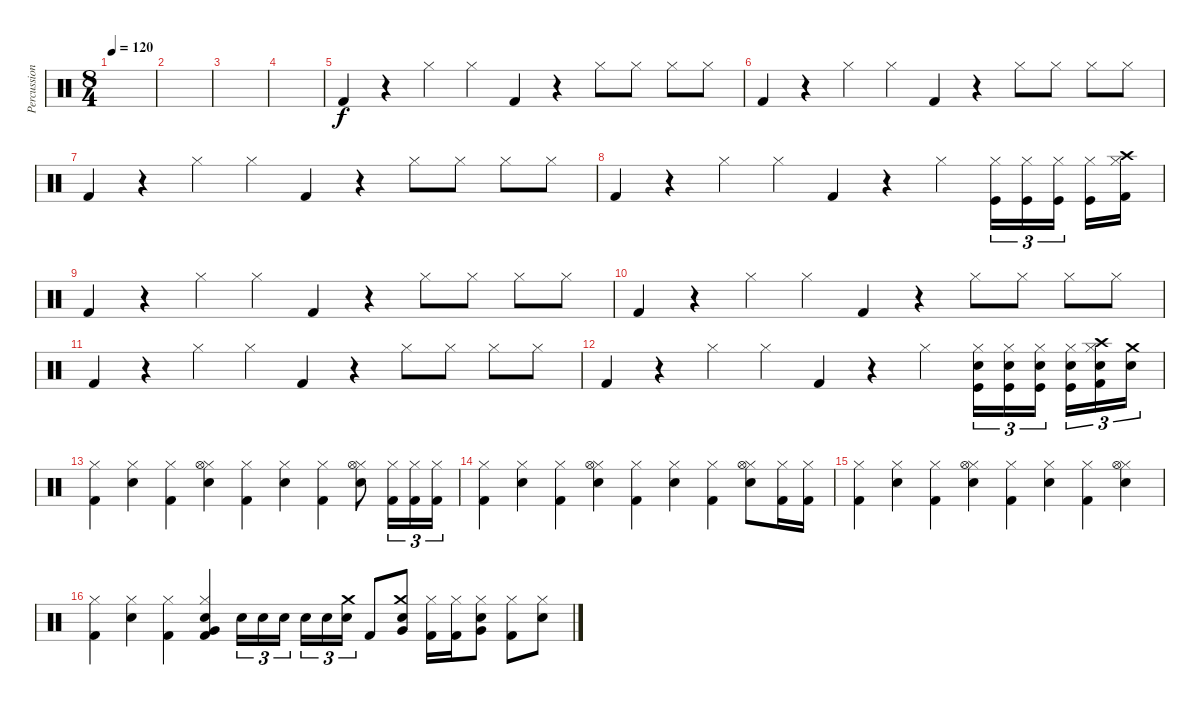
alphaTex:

\track ("Percussions" "Percussion") {instrument percussion}
\staff {score}
\articulation defaults
\ts (8 4)
\tempo 120
\clef neutral
\ks c
|
|
|
|
"Kick (hit) 2".4 r.4 "Hi-Hat (closed)".4 "Hi-Hat (closed)".4 "Kick (hit) 2".4 r.4 "Hi-Hat (closed)".8 "Hi-Hat (closed)".8 "Hi-Hat (closed)".8 "Hi-Hat (closed)".8 |
"Kick (hit) 2".4 r.4 "Hi-Hat (closed)".4 "Hi-Hat (closed)".4 "Kick (hit) 2".4 r.4 "Hi-Hat (closed)".8 "Hi-Hat (closed)".8 "Hi-Hat (closed)".8 "Hi-Hat (closed)".8 |
"Kick (hit) 2".4 r.4 "Hi-Hat (closed)".4 "Hi-Hat (closed)".4 "Kick (hit) 2".4 r.4 "Hi-Hat (closed)".8 "Hi-Hat (closed)".8 "Hi-Hat (closed)".8 "Hi-Hat (closed)".8 |
"Kick (hit) 2".4 r.4 "Hi-Hat (closed)".4 "Hi-Hat (closed)".4 "Kick (hit) 2".4 r.4 "Hi-Hat (closed)".4 ("Kick (hit)" "Hi-Hat (closed)").16{tu (3 2)} ("Kick (hit)" "Hi-Hat (closed)").16{tu (3 2)} ("Kick (hit)" "Hi-Hat (closed)").16{tu (3 2)} ("Kick (hit)" "Hi-Hat (closed)").16 ("Kick (hit) 2" "Hi-Hat (closed)" "Crash high (hit)").16 |
"Kick (hit) 2".4 r.4 "Hi-Hat (closed)".4 "Hi-Hat (closed)".4 "Kick (hit) 2".4 r.4 "Hi-Hat (closed)".8 "Hi-Hat (closed)".8 "Hi-Hat (closed)".8 "Hi-Hat (closed)".8 |
"Kick (hit) 2".4 r.4 "Hi-Hat (closed)".4 "Hi-Hat (closed)".4 "Kick (hit) 2".4 r.4 "Hi-Hat (closed)".8 "Hi-Hat (closed)".8 "Hi-Hat (closed)".8 "Hi-Hat (closed)".8 |
"Kick (hit) 2".4 r.4 "Hi-Hat (closed)".4 "Hi-Hat (closed)".4 "Kick (hit) 2".4 r.4 "Hi-Hat (closed)".8 "Hi-Hat (closed)".8 "Hi-Hat (closed)".8 "Hi-Hat (closed)".8 |
"Kick (hit) 2".4 r.4 "Hi-Hat (closed)".4 "Hi-Hat (closed)".4 "Kick (hit) 2".4 r.4 "Hi-Hat (closed)".4 ("Kick (hit)" "Hi-Hat (closed)" "Electric Snare (hit)").16{tu (3 2)} ("Kick (hit)" "Hi-Hat (closed)" "Electric Snare (hit)").16{tu (3 2)} ("Kick (hit)" "Hi-Hat (closed)" "Electric Snare (hit)").16{tu (3 2)} ("Kick (hit)" "Hi-Hat (closed)" "Electric Snare (hit)").16{tu (3 2)} ("Kick (hit) 2" "Hi-Hat (closed)" "Crash high (hit)" "Electric Snare (hit)").16{tu (3 2)} ("Electric Snare (hit)" "Crash medium (hit)").16{tu (3 2)} |
("Kick (hit) 2" "Hi-Hat (closed)").4 ("Electric Snare (hit)" "Hi-Hat (closed)").4 ("Kick (hit) 2" "Hi-Hat (closed)").4 ("Electric Snare (hit)" "Hi-Hat (closed)" "Hi-Hat (open)").4 ("Kick (hit) 2" "Hi-Hat (closed)").4 ("Electric Snare (hit)" "Hi-Hat (closed)").4 ("Kick (hit) 2" "Hi-Hat (closed)").4 ("Electric Snare (hit)" "Hi-Hat (closed)" "Hi-Hat (open)").8 ("Kick (hit) 2" "Hi-Hat (closed)").16{tu (3 2)} ("Kick (hit) 2" "Hi-Hat (closed)").16{tu (3 2)} ("Kick (hit) 2" "Hi-Hat (closed)").16{tu (3 2)} |
("Kick (hit) 2" "Hi-Hat (closed)").4 ("Electric Snare (hit)" "Hi-Hat (closed)").4 ("Kick (hit) 2" "Hi-Hat (closed)").4 ("Electric Snare (hit)" "Hi-Hat (closed)" "Hi-Hat (open)").4 ("Kick (hit) 2" "Hi-Hat (closed)").4 ("Electric Snare (hit)" "Hi-Hat (closed)").4 ("Kick (hit) 2" "Hi-Hat (closed)").4 ("Electric Snare (hit)" "Hi-Hat (closed)" "Hi-Hat (open)").8 ("Kick (hit) 2" "Hi-Hat (closed)").16 ("Kick (hit) 2" "Hi-Hat (closed)").16 |
("Kick (hit) 2" "Hi-Hat (closed)").4 ("Electric Snare (hit)" "Hi-Hat (closed)").4 ("Kick (hit) 2" "Hi-Hat (closed)").4 ("Electric Snare (hit)" "Hi-Hat (closed)" "Hi-Hat (open)").4 ("Kick (hit) 2" "Hi-Hat (closed)").4 ("Electric Snare (hit)" "Hi-Hat (closed)").4 ("Kick (hit) 2" "Hi-Hat (closed)").4 ("Electric Snare (hit)" "Hi-Hat (closed)" "Hi-Hat (open)").4 |
("Kick (hit) 2" "Hi-Hat (closed)").4 ("Electric Snare (hit)" "Hi-Hat (closed)").4 ("Hi-Hat (closed)" "Kick (hit) 2").4 ("Hi-Hat (closed)" "Kick (hit) 2" "Very Low Tom (hit)" "Snare (hit) 2").4 "Snare (hit) 2".16{tu (3 2)} "Snare (hit) 2".16{tu (3 2)} "Snare (hit) 2".16{tu (3 2)} "Snare (hit) 2".16{tu (3 2)} "Snare (hit) 2".16{tu (3 2)} ("Snare (hit) 2" "Crash medium (hit)").16{tu (3 2)} "Kick (hit) 2".8 ("Electric Snare (hit)" "Crash medium (hit)" "Very Low Tom (hit)").8 ("Kick (hit) 2" "Hi-Hat (closed)").16 ("Kick (hit) 2" "Hi-Hat (closed)").16 ("Electric Snare (hit)" "Very Low Tom (hit)" "Hi-Hat (closed)").8 ("Kick (hit) 2" "Hi-Hat (closed)").8 ("Electric Snare (hit)" "Hi-Hat (closed)").8
